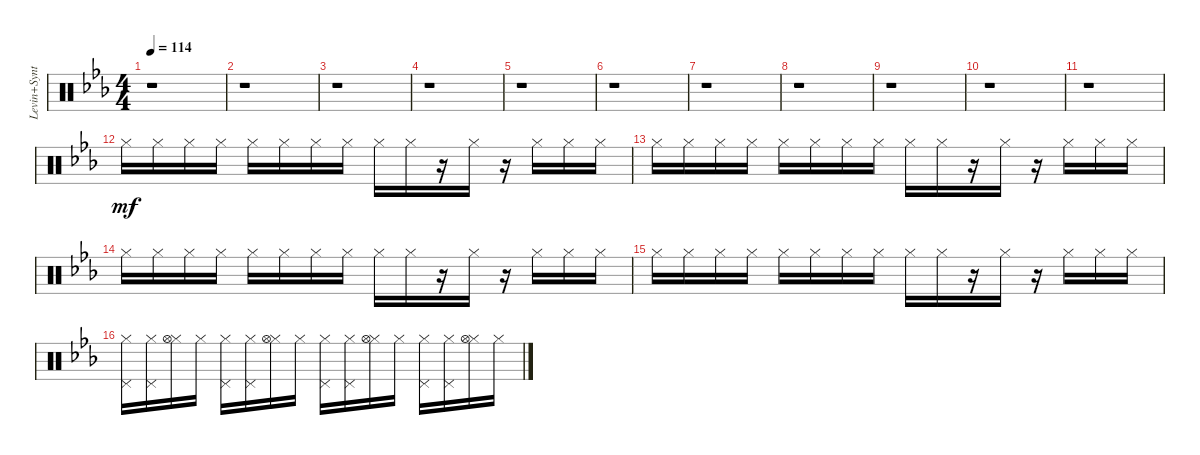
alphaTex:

\track ("Levin+Synth" "Levin+Synt") {instrument percussion}
\staff {score}
\articulation defaults
\ts (4 4)
\tempo 114
\clef neutral
\ks eb
r.1{dy mf} |
r.1 |
r.1 |
r.1 |
r.1 |
r.1 |
r.1 |
r.1 |
r.1 |
r.1 |
r.1 |
"Hi-Hat (closed)".16 "Hi-Hat (closed)".16 "Hi-Hat (closed)".16 "Hi-Hat (closed)".16 "Hi-Hat (closed)".16 "Hi-Hat (closed)".16 "Hi-Hat (closed)".16 "Hi-Hat (closed)".16 "Hi-Hat (closed)".16 "Hi-Hat (closed)".16 r.16 "Hi-Hat (closed)".16 r.16 "Hi-Hat (closed)".16 "Hi-Hat (closed)".16 "Hi-Hat (closed)".16 |
"Hi-Hat (closed)".16 "Hi-Hat (closed)".16 "Hi-Hat (closed)".16 "Hi-Hat (closed)".16 "Hi-Hat (closed)".16 "Hi-Hat (closed)".16 "Hi-Hat (closed)".16 "Hi-Hat (closed)".16 "Hi-Hat (closed)".16 "Hi-Hat (closed)".16 r.16 "Hi-Hat (closed)".16 r.16 "Hi-Hat (closed)".16 "Hi-Hat (closed)".16 "Hi-Hat (closed)".16 |
"Hi-Hat (closed)".16 "Hi-Hat (closed)".16 "Hi-Hat (closed)".16 "Hi-Hat (closed)".16 "Hi-Hat (closed)".16 "Hi-Hat (closed)".16 "Hi-Hat (closed)".16 "Hi-Hat (closed)".16 "Hi-Hat (closed)".16 "Hi-Hat (closed)".16 r.16 "Hi-Hat (closed)".16 r.16 "Hi-Hat (closed)".16 "Hi-Hat (closed)".16 "Hi-Hat (closed)".16 |
"Hi-Hat (closed)".16 "Hi-Hat (closed)".16 "Hi-Hat (closed)".16 "Hi-Hat (closed)".16 "Hi-Hat (closed)".16 "Hi-Hat (closed)".16 "Hi-Hat (closed)".16 "Hi-Hat (closed)".16 "Hi-Hat (closed)".16 "Hi-Hat (closed)".16 r.16 "Hi-Hat (closed)".16 r.16 "Hi-Hat (closed)".16 "Hi-Hat (closed)".16 "Hi-Hat (closed)".16 |
("Hi-Hat (closed)" "Pedal Hi-Hat (hit)").16 ("Hi-Hat (closed)" "Pedal Hi-Hat (hit)").16 ("Hi-Hat (closed)" "Hi-Hat (open)").16 "Hi-Hat (closed)".16 ("Hi-Hat (closed)" "Pedal Hi-Hat (hit)").16 ("Hi-Hat (closed)" "Pedal Hi-Hat (hit)").16 ("Hi-Hat (closed)" "Hi-Hat (open)").16 "Hi-Hat (closed)".16 ("Hi-Hat (closed)" "Pedal Hi-Hat (hit)").16 ("Hi-Hat (closed)" "Pedal Hi-Hat (hit)").16 ("Hi-Hat (closed)" "Hi-Hat (open)").16 "Hi-Hat (closed)".16 ("Hi-Hat (closed)" "Pedal Hi-Hat (hit)").16 ("Hi-Hat (closed)" "Pedal Hi-Hat (hit)").16 ("Hi-Hat (closed)" "Hi-Hat (open)").16 "Hi-Hat (closed)".16
